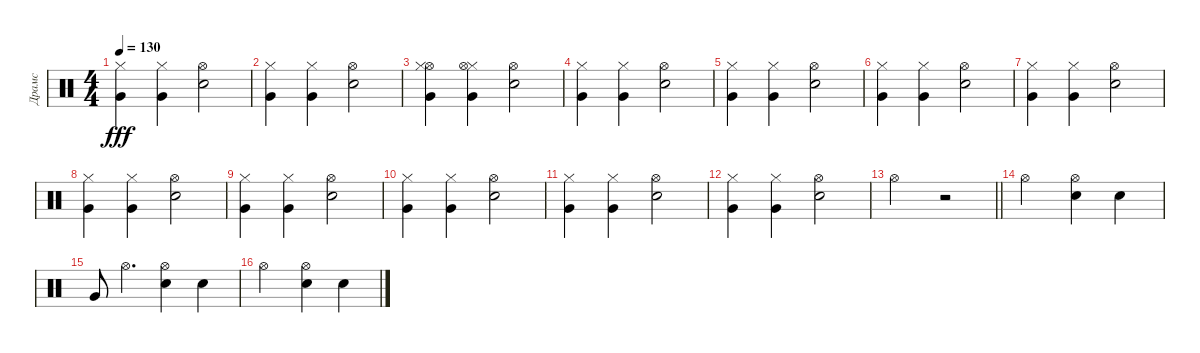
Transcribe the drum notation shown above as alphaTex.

\track ("Драмс" "Драмс") {instrument percussion}
\staff {score}
\articulation defaults
\ts (4 4)
\tempo 130
\clef neutral
\ks c
("Hi-Hat (closed)" "Very Low Tom (hit)").4{dy fff} ("Very Low Tom (hit)" "Hi-Hat (closed)").4 ("Snare (hit) 2" "Hi-Hat (open)").2 |
("Hi-Hat (closed)" "Very Low Tom (hit)").4 ("Very Low Tom (hit)" "Hi-Hat (closed)").4 ("Snare (hit) 2" "Hi-Hat (open)").2 |
("Hi-Hat (open)" "Hi-Hat (closed)" "Very Low Tom (hit)").4 ("Very Low Tom (hit)" "Hi-Hat (closed)" "Hi-Hat (open)").4 ("Snare (hit) 2" "Hi-Hat (open)").2 |
("Hi-Hat (closed)" "Very Low Tom (hit)").4 ("Very Low Tom (hit)" "Hi-Hat (closed)").4 ("Snare (hit) 2" "Hi-Hat (open)").2 |
("Hi-Hat (closed)" "Very Low Tom (hit)").4 ("Very Low Tom (hit)" "Hi-Hat (closed)").4 ("Snare (hit) 2" "Hi-Hat (open)").2 |
("Hi-Hat (closed)" "Very Low Tom (hit)").4 ("Very Low Tom (hit)" "Hi-Hat (closed)").4 ("Snare (hit) 2" "Hi-Hat (open)").2 |
("Hi-Hat (closed)" "Very Low Tom (hit)").4 ("Very Low Tom (hit)" "Hi-Hat (closed)").4 ("Snare (hit) 2" "Hi-Hat (open)").2 |
("Hi-Hat (closed)" "Very Low Tom (hit)").4 ("Very Low Tom (hit)" "Hi-Hat (closed)").4 ("Snare (hit) 2" "Hi-Hat (open)").2 |
("Hi-Hat (closed)" "Very Low Tom (hit)").4 ("Very Low Tom (hit)" "Hi-Hat (closed)").4 ("Snare (hit) 2" "Hi-Hat (open)").2 |
("Hi-Hat (closed)" "Very Low Tom (hit)").4 ("Very Low Tom (hit)" "Hi-Hat (closed)").4 ("Snare (hit) 2" "Hi-Hat (open)").2 |
("Hi-Hat (closed)" "Very Low Tom (hit)").4 ("Very Low Tom (hit)" "Hi-Hat (closed)").4 ("Snare (hit) 2" "Hi-Hat (open)").2 |
("Hi-Hat (closed)" "Very Low Tom (hit)").4 ("Very Low Tom (hit)" "Hi-Hat (closed)").4 ("Snare (hit) 2" "Hi-Hat (open)").2 |
\barLineRight lightlight "Hi-Hat (open)".2
r.2 |
"Hi-Hat (open)".2 ("Hi-Hat (open)" "Snare (hit) 2").4 "Snare (hit) 2".4 |
"Very Low Tom (hit)".8 "Hi-Hat (open)".4{d} ("Hi-Hat (open)" "Snare (hit) 2").4 "Snare (hit) 2".4 |
"Hi-Hat (open)".2 ("Hi-Hat (open)" "Snare (hit) 2").4 "Snare (hit) 2".4
